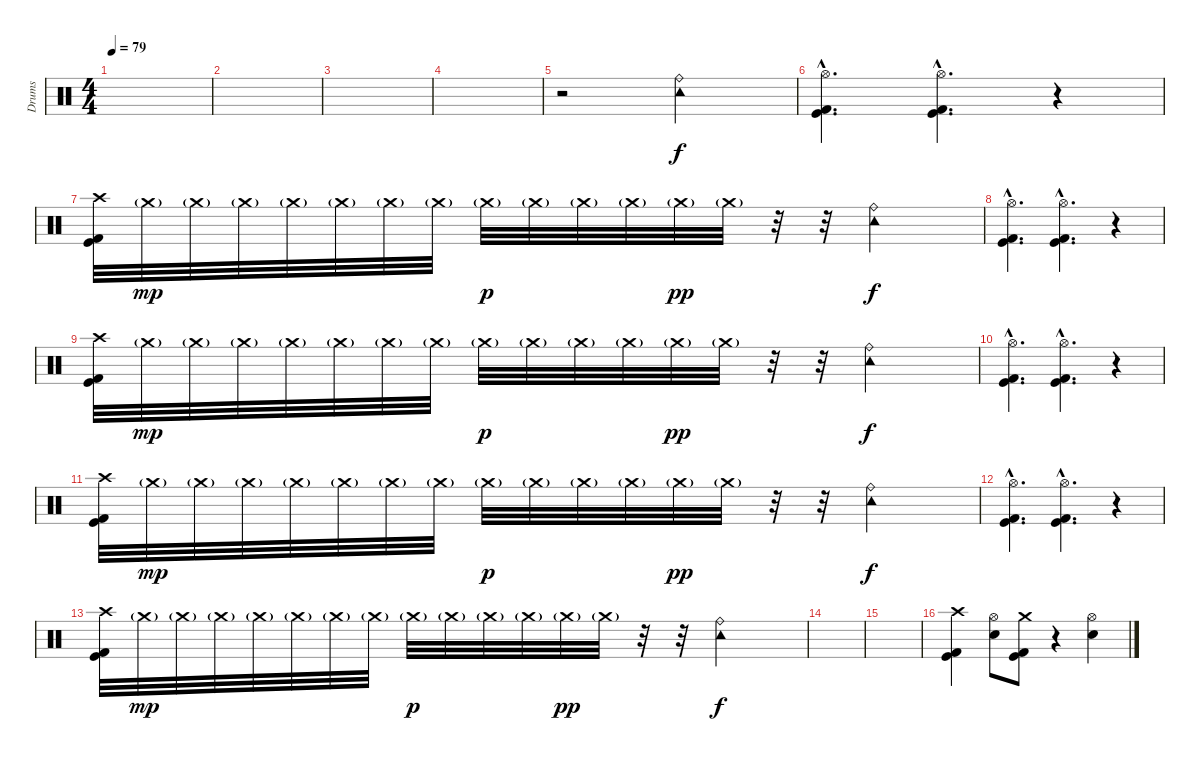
\track ("Drums" "Drums") {instrument percussion}
\staff {score}
\articulation defaults
\ts (4 4)
\tempo 79
\clef neutral
\ks c
|
|
|
|
r.2 ("Tambourine (hit)" "Ride (bell)").2 |
("Hi-Hat (open)"{hac} "Kick (hit) 2"{hac} "Kick (hit)"{hac}).4{d} ("Hi-Hat (open)"{hac} "Kick (hit) 2"{hac} "Kick (hit)"{hac}).4{d} r.4 |
("Crash high (hit)" "Kick (hit) 2" "Kick (hit)").32 "Crash medium (hit)"{g}.32{dy mp} "Crash medium (hit)"{g}.32 "Crash medium (hit)"{g}.32 "Crash medium (hit)"{g}.32 "Crash medium (hit)"{g}.32 "Crash medium (hit)"{g}.32 "Crash medium (hit)"{g}.32 "Crash medium (hit)"{g}.32{dy p} "Crash medium (hit)"{g}.32 "Crash medium (hit)"{g}.32 "Crash medium (hit)"{g}.32 "Crash medium (hit)"{g}.32{dy pp} "Crash medium (hit)"{g}.32 r.32 r.32 ("Tambourine (hit)" "Ride (bell)").2{dy f} |
("Hi-Hat (open)"{hac} "Kick (hit) 2"{hac} "Kick (hit)"{hac}).4{d} ("Hi-Hat (open)"{hac} "Kick (hit) 2"{hac} "Kick (hit)"{hac}).4{d} r.4 |
("Crash high (hit)" "Kick (hit) 2" "Kick (hit)").32 "Crash medium (hit)"{g}.32{dy mp} "Crash medium (hit)"{g}.32 "Crash medium (hit)"{g}.32 "Crash medium (hit)"{g}.32 "Crash medium (hit)"{g}.32 "Crash medium (hit)"{g}.32 "Crash medium (hit)"{g}.32 "Crash medium (hit)"{g}.32{dy p} "Crash medium (hit)"{g}.32 "Crash medium (hit)"{g}.32 "Crash medium (hit)"{g}.32 "Crash medium (hit)"{g}.32{dy pp} "Crash medium (hit)"{g}.32 r.32 r.32 ("Tambourine (hit)" "Ride (bell)").2{dy f} |
("Hi-Hat (open)"{hac} "Kick (hit) 2"{hac} "Kick (hit)"{hac}).4{d} ("Hi-Hat (open)"{hac} "Kick (hit) 2"{hac} "Kick (hit)"{hac}).4{d} r.4 |
("Crash high (hit)" "Kick (hit) 2" "Kick (hit)").32 "Crash medium (hit)"{g}.32{dy mp} "Crash medium (hit)"{g}.32 "Crash medium (hit)"{g}.32 "Crash medium (hit)"{g}.32 "Crash medium (hit)"{g}.32 "Crash medium (hit)"{g}.32 "Crash medium (hit)"{g}.32 "Crash medium (hit)"{g}.32{dy p} "Crash medium (hit)"{g}.32 "Crash medium (hit)"{g}.32 "Crash medium (hit)"{g}.32 "Crash medium (hit)"{g}.32{dy pp} "Crash medium (hit)"{g}.32 r.32 r.32 ("Tambourine (hit)" "Ride (bell)").2{dy f} |
("Hi-Hat (open)"{hac} "Kick (hit) 2"{hac} "Kick (hit)"{hac}).4{d} ("Hi-Hat (open)"{hac} "Kick (hit) 2"{hac} "Kick (hit)"{hac}).4{d} r.4 |
("Crash high (hit)" "Kick (hit) 2" "Kick (hit)").32 "Crash medium (hit)"{g}.32{dy mp} "Crash medium (hit)"{g}.32 "Crash medium (hit)"{g}.32 "Crash medium (hit)"{g}.32 "Crash medium (hit)"{g}.32 "Crash medium (hit)"{g}.32 "Crash medium (hit)"{g}.32 "Crash medium (hit)"{g}.32{dy p} "Crash medium (hit)"{g}.32 "Crash medium (hit)"{g}.32 "Crash medium (hit)"{g}.32 "Crash medium (hit)"{g}.32{dy pp} "Crash medium (hit)"{g}.32 r.32 r.32 ("Tambourine (hit)" "Ride (bell)").2{dy f} |
|
|
("Crash high (hit)" "Kick (hit) 2" "Kick (hit)").4 ("Hi-Hat (open)" "Snare (hit) 2").8 ("Crash medium (hit)" "Kick (hit) 2" "Kick (hit)").8 r.4 ("Hi-Hat (open)" "Snare (hit) 2").4
